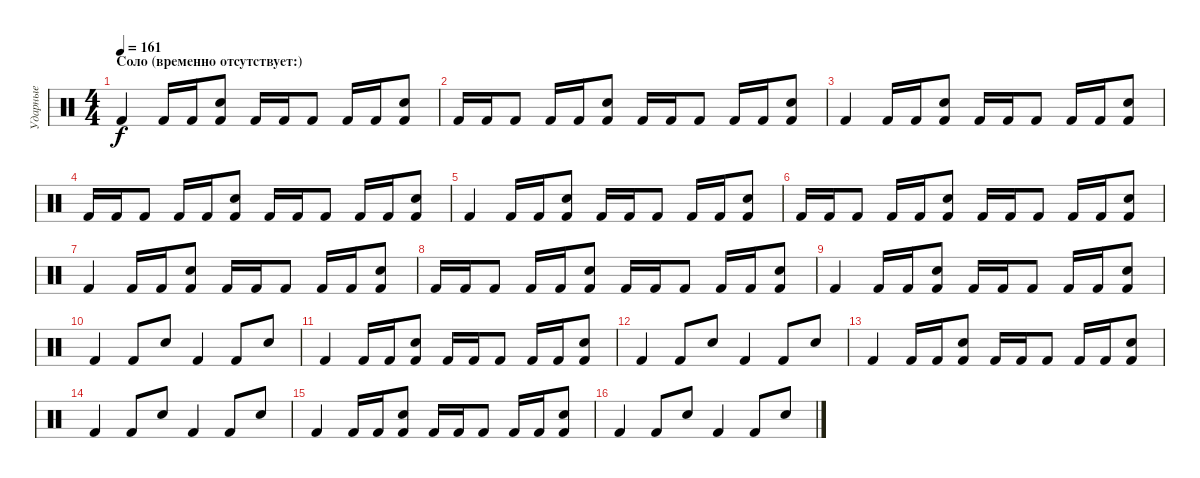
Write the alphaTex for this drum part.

\track ("Ударные" "Ударные") {instrument percussion}
\staff {score}
\articulation defaults
\ts (4 4)
\section ("" "Соло (временно отсутствует:)")
\tempo 161
\clef neutral
\ks c "Kick (hit) 2".4{dy f} "Kick (hit) 2".16 "Kick (hit) 2".16
("Snare (hit) 2" "Kick (hit) 2").8 "Kick (hit) 2".16 "Kick (hit) 2".16 "Kick (hit) 2".8 "Kick (hit) 2".16 "Kick (hit) 2".16 ("Snare (hit) 2" "Kick (hit) 2").8 |
"Kick (hit) 2".16 "Kick (hit) 2".16 "Kick (hit) 2".8 "Kick (hit) 2".16 "Kick (hit) 2".16 ("Snare (hit) 2" "Kick (hit) 2").8 "Kick (hit) 2".16 "Kick (hit) 2".16 "Kick (hit) 2".8 "Kick (hit) 2".16 "Kick (hit) 2".16 ("Snare (hit) 2" "Kick (hit) 2").8 |
"Kick (hit) 2".4 "Kick (hit) 2".16 "Kick (hit) 2".16 ("Snare (hit) 2" "Kick (hit) 2").8 "Kick (hit) 2".16 "Kick (hit) 2".16 "Kick (hit) 2".8 "Kick (hit) 2".16 "Kick (hit) 2".16 ("Snare (hit) 2" "Kick (hit) 2").8 |
"Kick (hit) 2".16 "Kick (hit) 2".16 "Kick (hit) 2".8 "Kick (hit) 2".16 "Kick (hit) 2".16 ("Snare (hit) 2" "Kick (hit) 2").8 "Kick (hit) 2".16 "Kick (hit) 2".16 "Kick (hit) 2".8 "Kick (hit) 2".16 "Kick (hit) 2".16 ("Snare (hit) 2" "Kick (hit) 2").8 |
"Kick (hit) 2".4 "Kick (hit) 2".16 "Kick (hit) 2".16 ("Snare (hit) 2" "Kick (hit) 2").8 "Kick (hit) 2".16 "Kick (hit) 2".16 "Kick (hit) 2".8 "Kick (hit) 2".16 "Kick (hit) 2".16 ("Snare (hit) 2" "Kick (hit) 2").8 |
"Kick (hit) 2".16 "Kick (hit) 2".16 "Kick (hit) 2".8 "Kick (hit) 2".16 "Kick (hit) 2".16 ("Snare (hit) 2" "Kick (hit) 2").8 "Kick (hit) 2".16 "Kick (hit) 2".16 "Kick (hit) 2".8 "Kick (hit) 2".16 "Kick (hit) 2".16 ("Snare (hit) 2" "Kick (hit) 2").8 |
"Kick (hit) 2".4 "Kick (hit) 2".16 "Kick (hit) 2".16 ("Snare (hit) 2" "Kick (hit) 2").8 "Kick (hit) 2".16 "Kick (hit) 2".16 "Kick (hit) 2".8 "Kick (hit) 2".16 "Kick (hit) 2".16 ("Snare (hit) 2" "Kick (hit) 2").8 |
"Kick (hit) 2".16 "Kick (hit) 2".16 "Kick (hit) 2".8 "Kick (hit) 2".16 "Kick (hit) 2".16 ("Snare (hit) 2" "Kick (hit) 2").8 "Kick (hit) 2".16 "Kick (hit) 2".16 "Kick (hit) 2".8 "Kick (hit) 2".16 "Kick (hit) 2".16 ("Snare (hit) 2" "Kick (hit) 2").8 |
"Kick (hit) 2".4 "Kick (hit) 2".16 "Kick (hit) 2".16 ("Snare (hit) 2" "Kick (hit) 2").8 "Kick (hit) 2".16 "Kick (hit) 2".16 "Kick (hit) 2".8 "Kick (hit) 2".16 "Kick (hit) 2".16 ("Snare (hit) 2" "Kick (hit) 2").8 |
"Kick (hit) 2".4 "Kick (hit) 2".8 "Snare (hit) 2".8 "Kick (hit) 2".4 "Kick (hit) 2".8 "Snare (hit) 2".8 |
"Kick (hit) 2".4 "Kick (hit) 2".16 "Kick (hit) 2".16 ("Snare (hit) 2" "Kick (hit) 2").8 "Kick (hit) 2".16 "Kick (hit) 2".16 "Kick (hit) 2".8 "Kick (hit) 2".16 "Kick (hit) 2".16 ("Snare (hit) 2" "Kick (hit) 2").8 |
"Kick (hit) 2".4 "Kick (hit) 2".8 "Snare (hit) 2".8 "Kick (hit) 2".4 "Kick (hit) 2".8 "Snare (hit) 2".8 |
"Kick (hit) 2".4 "Kick (hit) 2".16 "Kick (hit) 2".16 ("Snare (hit) 2" "Kick (hit) 2").8 "Kick (hit) 2".16 "Kick (hit) 2".16 "Kick (hit) 2".8 "Kick (hit) 2".16 "Kick (hit) 2".16 ("Snare (hit) 2" "Kick (hit) 2").8 |
"Kick (hit) 2".4 "Kick (hit) 2".8 "Snare (hit) 2".8 "Kick (hit) 2".4 "Kick (hit) 2".8 "Snare (hit) 2".8 |
"Kick (hit) 2".4 "Kick (hit) 2".16 "Kick (hit) 2".16 ("Snare (hit) 2" "Kick (hit) 2").8 "Kick (hit) 2".16 "Kick (hit) 2".16 "Kick (hit) 2".8 "Kick (hit) 2".16 "Kick (hit) 2".16 ("Snare (hit) 2" "Kick (hit) 2").8 |
"Kick (hit) 2".4 "Kick (hit) 2".8 "Snare (hit) 2".8 "Kick (hit) 2".4 "Kick (hit) 2".8 "Snare (hit) 2".8
